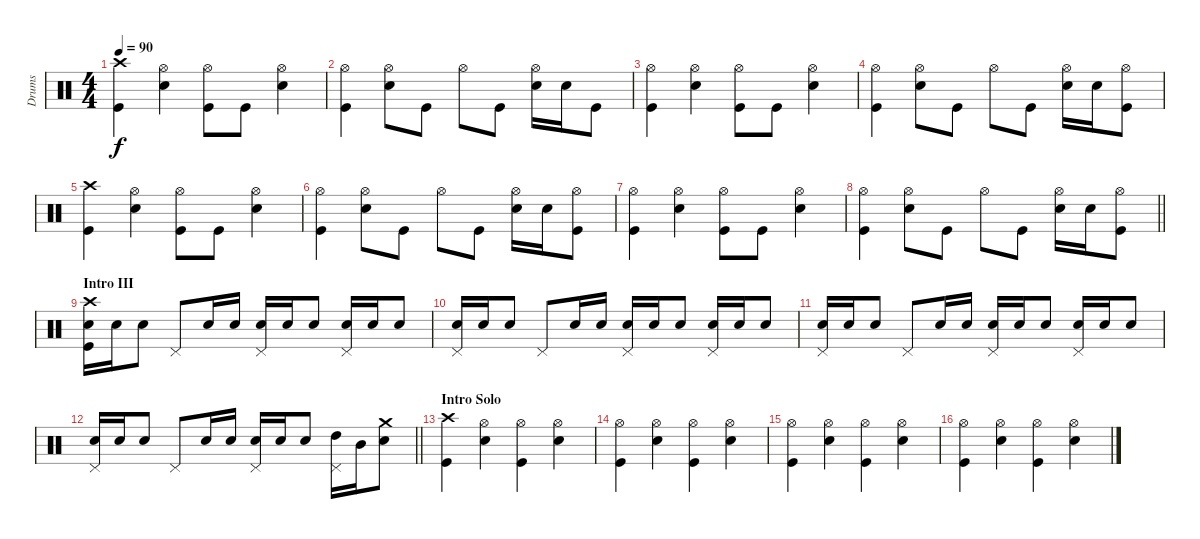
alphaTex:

\track ("Drums" "Drums") {instrument percussion}
\staff {score}
\articulation defaults
\ts (4 4)
\tempo 90
\clef neutral
\ks c
("Crash high (hit)" "Kick (hit)").4{dy f} ("Hi-Hat (open)" "Electric Snare (hit)").4 ("Hi-Hat (open)" "Kick (hit)").8 "Kick (hit)".8 ("Hi-Hat (open)" "Electric Snare (hit)").4 |
("Hi-Hat (open)" "Kick (hit)").4 ("Hi-Hat (open)" "Electric Snare (hit)").8 "Kick (hit)".8 "Hi-Hat (open)".8 "Kick (hit)".8 ("Hi-Hat (open)" "Electric Snare (hit)").16 "Electric Snare (hit)".16 "Kick (hit)".8 |
("Hi-Hat (open)" "Kick (hit)").4 ("Hi-Hat (open)" "Electric Snare (hit)").4 ("Hi-Hat (open)" "Kick (hit)").8 "Kick (hit)".8 ("Hi-Hat (open)" "Electric Snare (hit)").4 |
("Hi-Hat (open)" "Kick (hit)").4 ("Hi-Hat (open)" "Electric Snare (hit)").8 "Kick (hit)".8 "Hi-Hat (open)".8 "Kick (hit)".8 ("Hi-Hat (open)" "Electric Snare (hit)").16 "Electric Snare (hit)".16 ("Hi-Hat (open)" "Kick (hit)").8 |
("Crash high (hit)" "Kick (hit)").4 ("Hi-Hat (open)" "Electric Snare (hit)").4 ("Hi-Hat (open)" "Kick (hit)").8 "Kick (hit)".8 ("Hi-Hat (open)" "Electric Snare (hit)").4 |
("Hi-Hat (open)" "Kick (hit)").4 ("Hi-Hat (open)" "Electric Snare (hit)").8 "Kick (hit)".8 "Hi-Hat (open)".8 "Kick (hit)".8 ("Hi-Hat (open)" "Electric Snare (hit)").16 "Electric Snare (hit)".16 ("Hi-Hat (open)" "Kick (hit)").8 |
("Hi-Hat (open)" "Kick (hit)").4 ("Hi-Hat (open)" "Electric Snare (hit)").4 ("Hi-Hat (open)" "Kick (hit)").8 "Kick (hit)".8 ("Hi-Hat (open)" "Electric Snare (hit)").4 |
\barLineRight lightlight
("Hi-Hat (open)" "Kick (hit)").4 ("Hi-Hat (open)" "Electric Snare (hit)").8 "Kick (hit)".8 "Hi-Hat (open)".8 "Kick (hit)".8 ("Hi-Hat (open)" "Electric Snare (hit)").16 "Electric Snare (hit)".16 ("Hi-Hat (open)" "Kick (hit)").8 |
\section ("" "Intro III")
("Crash high (hit)" "Electric Snare (hit)" "Kick (hit)").16 "Electric Snare (hit)".16 "Electric Snare (hit)".8 "Pedal Hi-Hat (hit)".8 "Electric Snare (hit)".16 "Electric Snare (hit)".16 ("Electric Snare (hit)" "Pedal Hi-Hat (hit)").16 "Electric Snare (hit)".16 "Electric Snare (hit)".8 ("Electric Snare (hit)" "Pedal Hi-Hat (hit)").16 "Electric Snare (hit)".16 "Electric Snare (hit)".8 |
("Electric Snare (hit)" "Pedal Hi-Hat (hit)").16 "Electric Snare (hit)".16 "Electric Snare (hit)".8 "Pedal Hi-Hat (hit)".8 "Electric Snare (hit)".16 "Electric Snare (hit)".16 ("Electric Snare (hit)" "Pedal Hi-Hat (hit)").16 "Electric Snare (hit)".16 "Electric Snare (hit)".8 ("Electric Snare (hit)" "Pedal Hi-Hat (hit)").16 "Electric Snare (hit)".16 "Electric Snare (hit)".8 |
("Electric Snare (hit)" "Pedal Hi-Hat (hit)").16 "Electric Snare (hit)".16 "Electric Snare (hit)".8 "Pedal Hi-Hat (hit)".8 "Electric Snare (hit)".16 "Electric Snare (hit)".16 ("Electric Snare (hit)" "Pedal Hi-Hat (hit)").16 "Electric Snare (hit)".16 "Electric Snare (hit)".8 ("Electric Snare (hit)" "Pedal Hi-Hat (hit)").16 "Electric Snare (hit)".16 "Electric Snare (hit)".8 |
\barLineRight lightlight
("Electric Snare (hit)" "Pedal Hi-Hat (hit)").16 "Electric Snare (hit)".16 "Electric Snare (hit)".8 "Pedal Hi-Hat (hit)".8 "Electric Snare (hit)".16 "Electric Snare (hit)".16 ("Electric Snare (hit)" "Pedal Hi-Hat (hit)").16 "Electric Snare (hit)".16 "Electric Snare (hit)".8 ("High Tom (hit)" "Pedal Hi-Hat (hit)").16 "Mid Tom (hit)".16 ("Crash medium (hit)" "Electric Snare (hit)").8 |
\section ("" "Intro Solo")
("Crash high (hit)" "Kick (hit)").4 ("Hi-Hat (open)" "Electric Snare (hit)").4 ("Hi-Hat (open)" "Kick (hit)").4 ("Hi-Hat (open)" "Electric Snare (hit)").4 |
("Hi-Hat (open)" "Kick (hit)").4 ("Hi-Hat (open)" "Electric Snare (hit)").4 ("Hi-Hat (open)" "Kick (hit)").4 ("Hi-Hat (open)" "Electric Snare (hit)").4 |
("Hi-Hat (open)" "Kick (hit)").4 ("Hi-Hat (open)" "Electric Snare (hit)").4 ("Hi-Hat (open)" "Kick (hit)").4 ("Hi-Hat (open)" "Electric Snare (hit)").4 |
("Hi-Hat (open)" "Kick (hit)").4 ("Hi-Hat (open)" "Electric Snare (hit)").4 ("Hi-Hat (open)" "Kick (hit)").4 ("Hi-Hat (open)" "Electric Snare (hit)").4
